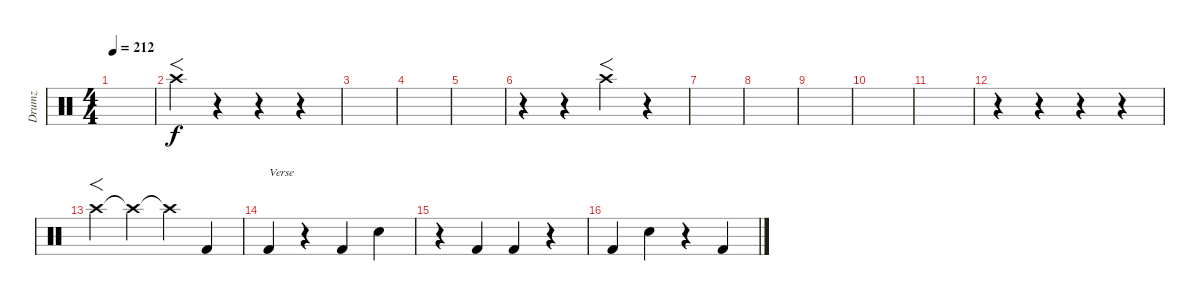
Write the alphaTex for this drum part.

\track ("Drumz" "Drumz") {instrument percussion}
\staff {score}
\articulation defaults
\ts (4 4)
\tempo 212
\clef neutral
\ks c
|
"Crash high (hit)".4{f} r.4 r.4 r.4 |
|
|
|
r.4 r.4 "Crash high (hit)".4{f} r.4 |
|
|
|
|
|
r.4 r.4 r.4 r.4 |
"Crash high (hit)".4{f} "Crash high (hit)"{t}.4 "Crash high (hit)"{t}.4 "Kick (hit) 2".4 |
"Kick (hit) 2".4{txt "Verse"} r.4 "Kick (hit) 2".4 "Snare (hit) 2".4 |
r.4 "Kick (hit) 2".4 "Kick (hit) 2".4 r.4 |
"Kick (hit) 2".4 "Snare (hit) 2".4 r.4 "Kick (hit) 2".4
